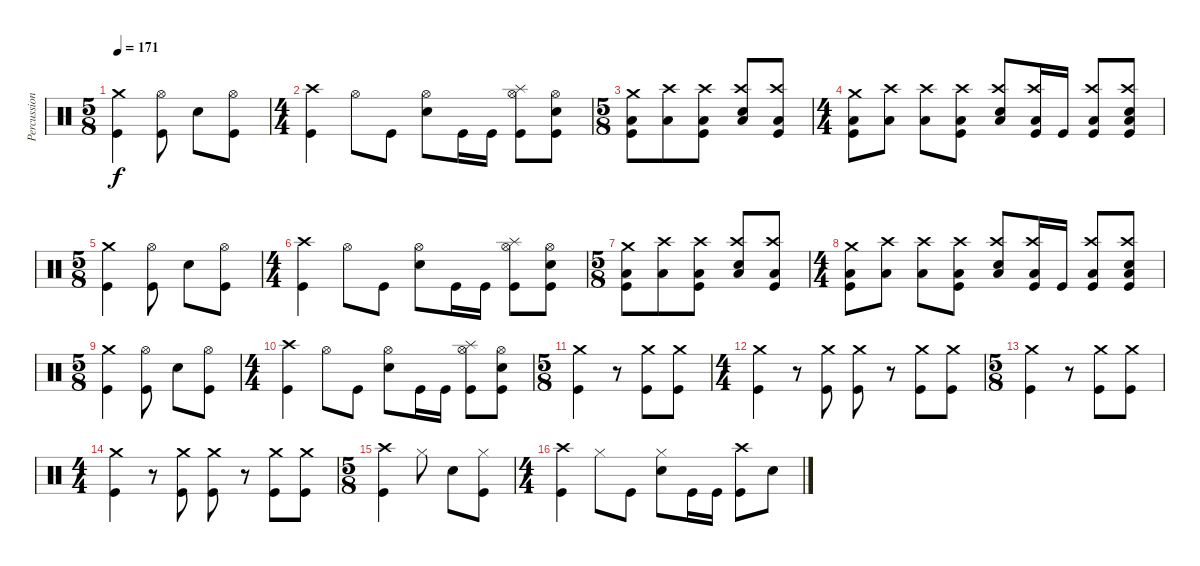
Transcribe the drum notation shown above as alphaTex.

\track ("Percussions" "Percussion") {instrument percussion}
\staff {score}
\articulation defaults
\ts (5 8)
\tempo 171
\clef neutral
\ks c
("Crash medium (hit)" "Kick (hit)").4{dy f} ("Hi-Hat (open)" "Kick (hit)").8 "Snare (hit) 2".8 ("Hi-Hat (open)" "Kick (hit)").8 |
\ts (4 4)
("Crash high (hit)" "Kick (hit)").4 "Hi-Hat (open)".8 "Kick (hit)".8 ("Hi-Hat (open)" "Snare (hit) 2").8 "Kick (hit)".16 "Kick (hit)".16 ("Splash (hit)" "Hi-Hat (open)" "Kick (hit)").8 ("Hi-Hat (open)" "Snare (hit) 2" "Kick (hit)").8 |
\ts (5 8)
("Crash medium (hit)" "Low Floor Tom (hit)" "Kick (hit)").8 ("Crash high (hit)" "Low Floor Tom (hit)").8 ("Crash high (hit)" "Low Floor Tom (hit)" "Kick (hit)").8 ("Crash high (hit)" "Snare (hit) 2" "Low Floor Tom (hit)").8 ("Crash high (hit)" "Low Floor Tom (hit)" "Kick (hit)").8 |
\ts (4 4)
("Crash medium (hit)" "Low Floor Tom (hit)" "Kick (hit)").8 ("Crash high (hit)" "Low Floor Tom (hit)").8 ("Crash high (hit)" "Low Floor Tom (hit)").8 ("Crash high (hit)" "Low Floor Tom (hit)" "Kick (hit)").8 ("Crash high (hit)" "Snare (hit) 2" "Low Floor Tom (hit)").8 ("Crash high (hit)" "Low Floor Tom (hit)" "Kick (hit)").16 "Kick (hit)".16 ("Crash high (hit)" "Low Floor Tom (hit)" "Kick (hit)").8 ("Crash high (hit)" "Snare (hit) 2" "Low Floor Tom (hit)" "Kick (hit)").8 |
\ts (5 8)
("Crash medium (hit)" "Kick (hit)").4 ("Hi-Hat (open)" "Kick (hit)").8 "Snare (hit) 2".8 ("Hi-Hat (open)" "Kick (hit)").8 |
\ts (4 4)
("Crash high (hit)" "Kick (hit)").4 "Hi-Hat (open)".8 "Kick (hit)".8 ("Hi-Hat (open)" "Snare (hit) 2").8 "Kick (hit)".16 "Kick (hit)".16 ("Splash (hit)" "Hi-Hat (open)" "Kick (hit)").8 ("Hi-Hat (open)" "Snare (hit) 2" "Kick (hit)").8 |
\ts (5 8)
("Crash medium (hit)" "Low Floor Tom (hit)" "Kick (hit)").8 ("Crash high (hit)" "Low Floor Tom (hit)").8 ("Crash high (hit)" "Low Floor Tom (hit)" "Kick (hit)").8 ("Crash high (hit)" "Snare (hit) 2" "Low Floor Tom (hit)").8 ("Crash high (hit)" "Low Floor Tom (hit)" "Kick (hit)").8 |
\ts (4 4)
("Crash medium (hit)" "Low Floor Tom (hit)" "Kick (hit)").8 ("Crash high (hit)" "Low Floor Tom (hit)").8 ("Crash high (hit)" "Low Floor Tom (hit)").8 ("Crash high (hit)" "Low Floor Tom (hit)" "Kick (hit)").8 ("Crash high (hit)" "Snare (hit) 2" "Low Floor Tom (hit)").8 ("Crash high (hit)" "Low Floor Tom (hit)" "Kick (hit)").16 "Kick (hit)".16 ("Crash high (hit)" "Low Floor Tom (hit)" "Kick (hit)").8 ("Crash high (hit)" "Snare (hit) 2" "Low Floor Tom (hit)" "Kick (hit)").8 |
\ts (5 8)
("Crash medium (hit)" "Kick (hit)").4 ("Hi-Hat (open)" "Kick (hit)").8 "Snare (hit) 2".8 ("Hi-Hat (open)" "Kick (hit)").8 |
\ts (4 4)
("Crash high (hit)" "Kick (hit)").4 "Hi-Hat (open)".8 "Kick (hit)".8 ("Hi-Hat (open)" "Snare (hit) 2").8 "Kick (hit)".16 "Kick (hit)".16 ("Splash (hit)" "Hi-Hat (open)" "Kick (hit)").8 ("Hi-Hat (open)" "Snare (hit) 2" "Kick (hit)").8 |
\ts (5 8)
("Crash medium (hit)" "Kick (hit)").4 r.8 ("Crash medium (hit)" "Kick (hit)").8 ("Crash medium (hit)" "Kick (hit)").8 |
\ts (4 4)
("Crash medium (hit)" "Kick (hit)").4 r.8 ("Crash medium (hit)" "Kick (hit)").8 ("Crash medium (hit)" "Kick (hit)").8 r.8 ("Crash medium (hit)" "Kick (hit)").8 ("Crash medium (hit)" "Kick (hit)").8 |
\ts (5 8)
("Crash medium (hit)" "Kick (hit)").4 r.8 ("Crash medium (hit)" "Kick (hit)").8 ("Crash medium (hit)" "Kick (hit)").8 |
\ts (4 4)
("Crash medium (hit)" "Kick (hit)").4 r.8 ("Crash medium (hit)" "Kick (hit)").8 ("Crash medium (hit)" "Kick (hit)").8 r.8 ("Crash medium (hit)" "Kick (hit)").8 ("Crash medium (hit)" "Kick (hit)").8 |
\ts (5 8)
("Crash high (hit)" "Kick (hit)").4 "Hi-Hat (closed)".8 "Snare (hit) 2".8 ("Hi-Hat (closed)" "Kick (hit)").8 |
\ts (4 4)
("Crash high (hit)" "Kick (hit)").4 "Hi-Hat (closed)".8 "Kick (hit)".8 ("Hi-Hat (closed)" "Snare (hit) 2").8 "Kick (hit)".16 "Kick (hit)".16 ("Crash high (hit)" "Kick (hit)").8 "Snare (hit) 2".8
